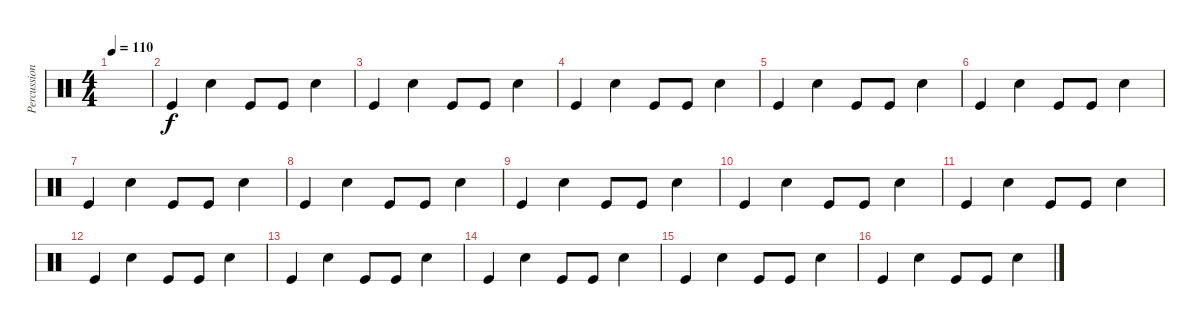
\track ("Percussion" "Percussion") {instrument percussion}
\staff {score}
\articulation defaults
\ts (4 4)
\tempo 110
\clef neutral
\ks c
|
"Kick (hit)".4 "Snare (hit) 2".4 "Kick (hit)".8 "Kick (hit)".8 "Snare (hit) 2".4 |
"Kick (hit)".4 "Snare (hit) 2".4 "Kick (hit)".8 "Kick (hit)".8 "Snare (hit) 2".4 |
"Kick (hit)".4 "Snare (hit) 2".4 "Kick (hit)".8 "Kick (hit)".8 "Snare (hit) 2".4 |
"Kick (hit)".4 "Snare (hit) 2".4 "Kick (hit)".8 "Kick (hit)".8 "Snare (hit) 2".4 |
"Kick (hit)".4 "Snare (hit) 2".4 "Kick (hit)".8 "Kick (hit)".8 "Snare (hit) 2".4 |
"Kick (hit)".4 "Snare (hit) 2".4 "Kick (hit)".8 "Kick (hit)".8 "Snare (hit) 2".4 |
"Kick (hit)".4 "Snare (hit) 2".4 "Kick (hit)".8 "Kick (hit)".8 "Snare (hit) 2".4 |
"Kick (hit)".4 "Snare (hit) 2".4 "Kick (hit)".8 "Kick (hit)".8 "Snare (hit) 2".4 |
"Kick (hit)".4 "Snare (hit) 2".4 "Kick (hit)".8 "Kick (hit)".8 "Snare (hit) 2".4 |
"Kick (hit)".4 "Snare (hit) 2".4 "Kick (hit)".8 "Kick (hit)".8 "Snare (hit) 2".4 |
"Kick (hit)".4 "Snare (hit) 2".4 "Kick (hit)".8 "Kick (hit)".8 "Snare (hit) 2".4 |
"Kick (hit)".4 "Snare (hit) 2".4 "Kick (hit)".8 "Kick (hit)".8 "Snare (hit) 2".4 |
"Kick (hit)".4 "Snare (hit) 2".4 "Kick (hit)".8 "Kick (hit)".8 "Snare (hit) 2".4 |
"Kick (hit)".4 "Snare (hit) 2".4 "Kick (hit)".8 "Kick (hit)".8 "Snare (hit) 2".4 |
"Kick (hit)".4 "Snare (hit) 2".4 "Kick (hit)".8 "Kick (hit)".8 "Snare (hit) 2".4
